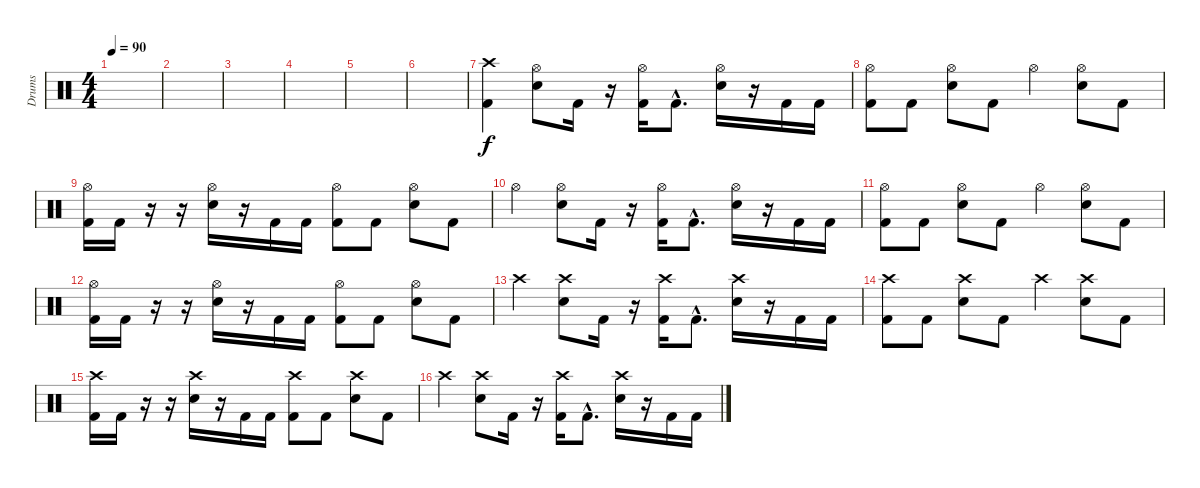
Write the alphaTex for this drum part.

\track ("Drums" "Drums") {instrument percussion}
\staff {score}
\articulation defaults
\ts (4 4)
\tempo 90
\clef neutral
\ks c
|
|
|
|
|
|
("Crash high (hit)" "Kick (hit) 2").4 ("Hi-Hat (open)" "Electric Snare (hit)").8 "Kick (hit) 2".16 r.16 ("Hi-Hat (open)" "Kick (hit) 2").16 "Kick (hit) 2"{hac}.8{d} ("Hi-Hat (open)" "Electric Snare (hit)").16 r.16 "Kick (hit) 2".16 "Kick (hit) 2".16 |
("Hi-Hat (open)" "Kick (hit) 2").8 "Kick (hit) 2".8 ("Hi-Hat (open)" "Electric Snare (hit)").8 "Kick (hit) 2".8 "Hi-Hat (open)".4 ("Hi-Hat (open)" "Electric Snare (hit)").8 "Kick (hit) 2".8 |
("Hi-Hat (open)" "Kick (hit) 2").16 "Kick (hit) 2".16 r.16 r.16 ("Hi-Hat (open)" "Electric Snare (hit)").16 r.16 "Kick (hit) 2".16 "Kick (hit) 2".16 ("Hi-Hat (open)" "Kick (hit) 2").8 "Kick (hit) 2".8 ("Hi-Hat (open)" "Electric Snare (hit)").8 "Kick (hit) 2".8 |
"Hi-Hat (open)".4 ("Hi-Hat (open)" "Electric Snare (hit)").8 "Kick (hit) 2".16 r.16 ("Hi-Hat (open)" "Kick (hit) 2").16 "Kick (hit) 2"{hac}.8{d} ("Hi-Hat (open)" "Electric Snare (hit)").16 r.16 "Kick (hit) 2".16 "Kick (hit) 2".16 |
("Hi-Hat (open)" "Kick (hit) 2").8 "Kick (hit) 2".8 ("Hi-Hat (open)" "Electric Snare (hit)").8 "Kick (hit) 2".8 "Hi-Hat (open)".4 ("Hi-Hat (open)" "Electric Snare (hit)").8 "Kick (hit) 2".8 |
("Hi-Hat (open)" "Kick (hit) 2").16 "Kick (hit) 2".16 r.16 r.16 ("Hi-Hat (open)" "Electric Snare (hit)").16 r.16 "Kick (hit) 2".16 "Kick (hit) 2".16 ("Hi-Hat (open)" "Kick (hit) 2").8 "Kick (hit) 2".8 ("Hi-Hat (open)" "Electric Snare (hit)").8 "Kick (hit) 2".8 |
"Crash high (hit)".4 ("Crash high (hit)" "Electric Snare (hit)").8 "Kick (hit) 2".16 r.16 ("Crash high (hit)" "Kick (hit) 2").16 "Kick (hit) 2"{hac}.8{d} ("Crash high (hit)" "Electric Snare (hit)").16 r.16 "Kick (hit) 2".16 "Kick (hit) 2".16 |
("Crash high (hit)" "Kick (hit) 2").8 "Kick (hit) 2".8 ("Crash high (hit)" "Electric Snare (hit)").8 "Kick (hit) 2".8 "Crash high (hit)".4 ("Crash high (hit)" "Electric Snare (hit)").8 "Kick (hit) 2".8 |
("Crash high (hit)" "Kick (hit) 2").16 "Kick (hit) 2".16 r.16 r.16 ("Crash high (hit)" "Electric Snare (hit)").16 r.16 "Kick (hit) 2".16 "Kick (hit) 2".16 ("Crash high (hit)" "Kick (hit) 2").8 "Kick (hit) 2".8 ("Crash high (hit)" "Electric Snare (hit)").8 "Kick (hit) 2".8 |
"Crash high (hit)".4 ("Crash high (hit)" "Electric Snare (hit)").8 "Kick (hit) 2".16 r.16 ("Crash high (hit)" "Kick (hit) 2").16 "Kick (hit) 2"{hac}.8{d} ("Crash high (hit)" "Electric Snare (hit)").16 r.16 "Kick (hit) 2".16 "Kick (hit) 2".16
